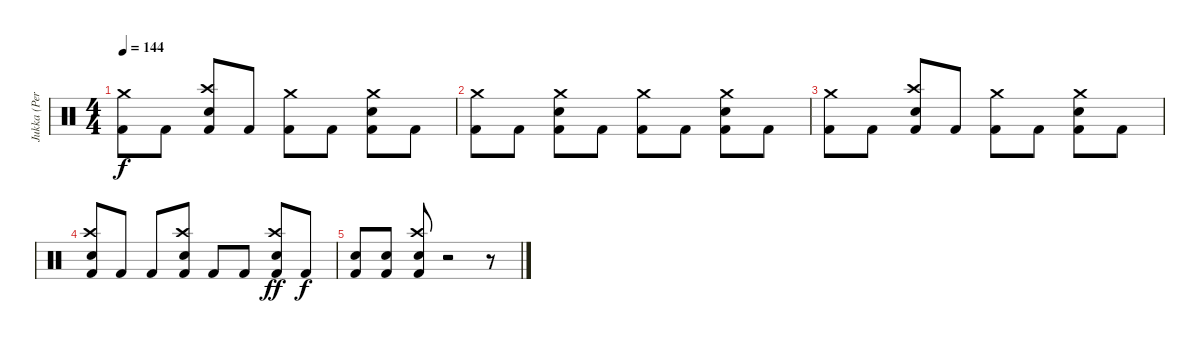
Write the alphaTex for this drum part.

\track ("Jukka (Percussion)" "Jukka (Per") {instrument percussion}
\staff {score}
\articulation defaults
\ts (4 4)
\tempo 144
\clef neutral
\ks c
("Crash medium (hit)" "Kick (hit) 2").8{dy f} "Kick (hit) 2".8 ("Crash high (hit)" "Electric Snare (hit)" "Kick (hit) 2").8 "Kick (hit) 2".8 ("Crash medium (hit)" "Kick (hit) 2").8 "Kick (hit) 2".8 ("Crash medium (hit)" "Electric Snare (hit)" "Kick (hit) 2").8 "Kick (hit) 2".8 |
("Crash medium (hit)" "Kick (hit) 2").8 "Kick (hit) 2".8 ("Crash medium (hit)" "Electric Snare (hit)" "Kick (hit) 2").8 "Kick (hit) 2".8 ("Crash medium (hit)" "Kick (hit) 2").8 "Kick (hit) 2".8 ("Crash medium (hit)" "Electric Snare (hit)" "Kick (hit) 2").8 "Kick (hit) 2".8 |
("Crash medium (hit)" "Kick (hit) 2").8 "Kick (hit) 2".8 ("Crash high (hit)" "Electric Snare (hit)" "Kick (hit) 2").8 "Kick (hit) 2".8 ("Crash medium (hit)" "Kick (hit) 2").8 "Kick (hit) 2".8 ("Crash medium (hit)" "Electric Snare (hit)" "Kick (hit) 2").8 "Kick (hit) 2".8 |
("Crash high (hit)" "Electric Snare (hit)" "Kick (hit) 2").8 "Kick (hit) 2".8 "Kick (hit) 2".8 ("Crash high (hit)" "Electric Snare (hit)" "Kick (hit) 2").8 "Kick (hit) 2".8 "Kick (hit) 2".8 ("Crash high (hit)" "Electric Snare (hit)" "Kick (hit) 2").8{dy ff} "Kick (hit) 2".8{dy f} |
("Electric Snare (hit)" "Kick (hit) 2").8 ("Electric Snare (hit)" "Kick (hit) 2").8 ("Crash high (hit)" "Electric Snare (hit)" "Kick (hit) 2").8 r.2 r.8
